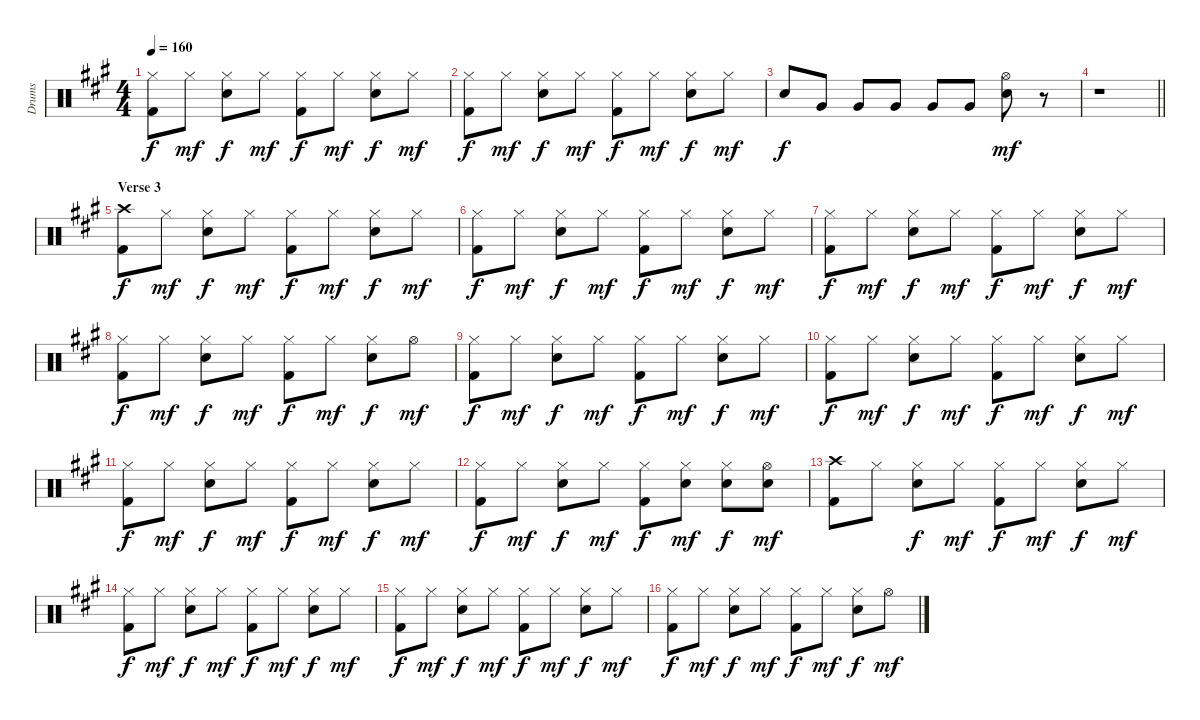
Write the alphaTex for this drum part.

\track ("Drums" "Drums") {instrument percussion}
\staff {score}
\articulation defaults
\ts (4 4)
\tempo 160
\clef neutral
\ks a
("Hi-Hat (closed)" "Kick (hit) 2").8{dy f} "Hi-Hat (closed)".8{dy mf} ("Hi-Hat (closed)" "Electric Snare (hit)").8{dy f} "Hi-Hat (closed)".8{dy mf} ("Hi-Hat (closed)" "Kick (hit) 2").8{dy f} "Hi-Hat (closed)".8{dy mf} ("Hi-Hat (closed)" "Electric Snare (hit)").8{dy f} "Hi-Hat (closed)".8{dy mf} |
("Hi-Hat (closed)" "Kick (hit) 2").8{dy f} "Hi-Hat (closed)".8{dy mf} ("Hi-Hat (closed)" "Electric Snare (hit)").8{dy f} "Hi-Hat (closed)".8{dy mf} ("Hi-Hat (closed)" "Kick (hit) 2").8{dy f} "Hi-Hat (closed)".8{dy mf} ("Hi-Hat (closed)" "Electric Snare (hit)").8{dy f} "Hi-Hat (closed)".8{dy mf} |
"Electric Snare (hit)".8{dy f} "Very Low Tom (hit)".8 "Very Low Tom (hit)".8 "Very Low Tom (hit)".8 "Very Low Tom (hit)".8 "Very Low Tom (hit)".8 ("Hi-Hat (open)" "Electric Snare (hit)").8{dy mf} r.8 |
\barLineRight lightlight
r.1 |
\section ("" "Verse 3")
("Crash high (hit)" "Kick (hit) 2").8{dy f} "Hi-Hat (closed)".8{dy mf} ("Hi-Hat (closed)" "Electric Snare (hit)").8{dy f} "Hi-Hat (closed)".8{dy mf} ("Hi-Hat (closed)" "Kick (hit) 2").8{dy f} "Hi-Hat (closed)".8{dy mf} ("Hi-Hat (closed)" "Electric Snare (hit)").8{dy f} "Hi-Hat (closed)".8{dy mf} |
("Hi-Hat (closed)" "Kick (hit) 2").8{dy f} "Hi-Hat (closed)".8{dy mf} ("Hi-Hat (closed)" "Electric Snare (hit)").8{dy f} "Hi-Hat (closed)".8{dy mf} ("Hi-Hat (closed)" "Kick (hit) 2").8{dy f} "Hi-Hat (closed)".8{dy mf} ("Hi-Hat (closed)" "Electric Snare (hit)").8{dy f} "Hi-Hat (closed)".8{dy mf} |
("Hi-Hat (closed)" "Kick (hit) 2").8{dy f} "Hi-Hat (closed)".8{dy mf} ("Hi-Hat (closed)" "Electric Snare (hit)").8{dy f} "Hi-Hat (closed)".8{dy mf} ("Hi-Hat (closed)" "Kick (hit) 2").8{dy f} "Hi-Hat (closed)".8{dy mf} ("Hi-Hat (closed)" "Electric Snare (hit)").8{dy f} "Hi-Hat (closed)".8{dy mf} |
("Hi-Hat (closed)" "Kick (hit) 2").8{dy f} "Hi-Hat (closed)".8{dy mf} ("Hi-Hat (closed)" "Electric Snare (hit)").8{dy f} "Hi-Hat (closed)".8{dy mf} ("Hi-Hat (closed)" "Kick (hit) 2").8{dy f} "Hi-Hat (closed)".8{dy mf} ("Hi-Hat (closed)" "Electric Snare (hit)").8{dy f} "Hi-Hat (open)".8{dy mf} |
("Hi-Hat (closed)" "Kick (hit) 2").8{dy f} "Hi-Hat (closed)".8{dy mf} ("Hi-Hat (closed)" "Electric Snare (hit)").8{dy f} "Hi-Hat (closed)".8{dy mf} ("Hi-Hat (closed)" "Kick (hit) 2").8{dy f} "Hi-Hat (closed)".8{dy mf} ("Hi-Hat (closed)" "Electric Snare (hit)").8{dy f} "Hi-Hat (closed)".8{dy mf} |
("Hi-Hat (closed)" "Kick (hit) 2").8{dy f} "Hi-Hat (closed)".8{dy mf} ("Hi-Hat (closed)" "Electric Snare (hit)").8{dy f} "Hi-Hat (closed)".8{dy mf} ("Hi-Hat (closed)" "Kick (hit) 2").8{dy f} "Hi-Hat (closed)".8{dy mf} ("Hi-Hat (closed)" "Electric Snare (hit)").8{dy f} "Hi-Hat (closed)".8{dy mf} |
("Hi-Hat (closed)" "Kick (hit) 2").8{dy f} "Hi-Hat (closed)".8{dy mf} ("Hi-Hat (closed)" "Electric Snare (hit)").8{dy f} "Hi-Hat (closed)".8{dy mf} ("Hi-Hat (closed)" "Kick (hit) 2").8{dy f} "Hi-Hat (closed)".8{dy mf} ("Hi-Hat (closed)" "Electric Snare (hit)").8{dy f} "Hi-Hat (closed)".8{dy mf} |
("Hi-Hat (closed)" "Kick (hit) 2").8{dy f} "Hi-Hat (closed)".8{dy mf} ("Hi-Hat (closed)" "Electric Snare (hit)").8{dy f} "Hi-Hat (closed)".8{dy mf} ("Hi-Hat (closed)" "Kick (hit) 2").8{dy f} ("Hi-Hat (closed)" "Electric Snare (hit)").8{dy mf} ("Hi-Hat (closed)" "Electric Snare (hit)").8{dy f} ("Hi-Hat (open)" "Electric Snare (hit)").8{dy mf} |
("Crash high (hit)" "Kick (hit) 2").8 "Hi-Hat (closed)".8 ("Hi-Hat (closed)" "Electric Snare (hit)").8{dy f} "Hi-Hat (closed)".8{dy mf} ("Hi-Hat (closed)" "Kick (hit) 2").8{dy f} "Hi-Hat (closed)".8{dy mf} ("Hi-Hat (closed)" "Electric Snare (hit)").8{dy f} "Hi-Hat (closed)".8{dy mf} |
("Hi-Hat (closed)" "Kick (hit) 2").8{dy f} "Hi-Hat (closed)".8{dy mf} ("Hi-Hat (closed)" "Electric Snare (hit)").8{dy f} "Hi-Hat (closed)".8{dy mf} ("Hi-Hat (closed)" "Kick (hit) 2").8{dy f} "Hi-Hat (closed)".8{dy mf} ("Hi-Hat (closed)" "Electric Snare (hit)").8{dy f} "Hi-Hat (closed)".8{dy mf} |
("Hi-Hat (closed)" "Kick (hit) 2").8{dy f} "Hi-Hat (closed)".8{dy mf} ("Hi-Hat (closed)" "Electric Snare (hit)").8{dy f} "Hi-Hat (closed)".8{dy mf} ("Hi-Hat (closed)" "Kick (hit) 2").8{dy f} "Hi-Hat (closed)".8{dy mf} ("Hi-Hat (closed)" "Electric Snare (hit)").8{dy f} "Hi-Hat (closed)".8{dy mf} |
("Hi-Hat (closed)" "Kick (hit) 2").8{dy f} "Hi-Hat (closed)".8{dy mf} ("Hi-Hat (closed)" "Electric Snare (hit)").8{dy f} "Hi-Hat (closed)".8{dy mf} ("Hi-Hat (closed)" "Kick (hit) 2").8{dy f} "Hi-Hat (closed)".8{dy mf} ("Hi-Hat (closed)" "Electric Snare (hit)").8{dy f} "Hi-Hat (open)".8{dy mf}
